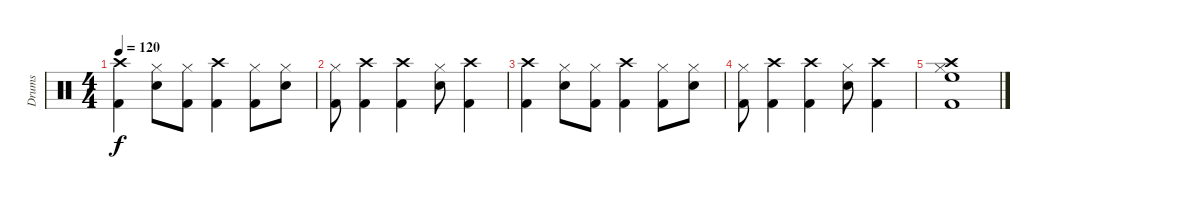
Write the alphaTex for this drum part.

\track ("Drums" "Drums") {instrument percussion}
\staff {score}
\articulation defaults
\ts (4 4)
\tempo 120
\clef neutral
\ks c
("Crash high (hit)" "Kick (hit) 2").4{dy f} ("Hi-Hat (closed)" "Electric Snare (hit)").8 ("Hi-Hat (closed)" "Kick (hit) 2").8 ("Crash high (hit)" "Kick (hit) 2").4 ("Hi-Hat (closed)" "Kick (hit) 2").8 ("Hi-Hat (closed)" "Electric Snare (hit)").8 |
("Hi-Hat (closed)" "Kick (hit) 2").8 ("Crash high (hit)" "Kick (hit) 2").4 ("Crash high (hit)" "Kick (hit) 2").4 ("Hi-Hat (closed)" "Electric Snare (hit)").8 ("Crash high (hit)" "Kick (hit) 2").4 |
("Crash high (hit)" "Kick (hit) 2").4 ("Hi-Hat (closed)" "Electric Snare (hit)").8 ("Hi-Hat (closed)" "Kick (hit) 2").8 ("Crash high (hit)" "Kick (hit) 2").4 ("Hi-Hat (closed)" "Kick (hit) 2").8 ("Hi-Hat (closed)" "Electric Snare (hit)").8 |
("Hi-Hat (closed)" "Kick (hit) 2").8 ("Crash high (hit)" "Kick (hit) 2").4 ("Crash high (hit)" "Kick (hit) 2").4 ("Hi-Hat (closed)" "Electric Snare (hit)").8 ("Crash high (hit)" "Kick (hit) 2").4 |
("High Floor Tom (hit)" "Crash high (hit)" "Hi-Hat (closed)" "Kick (hit) 2").1
